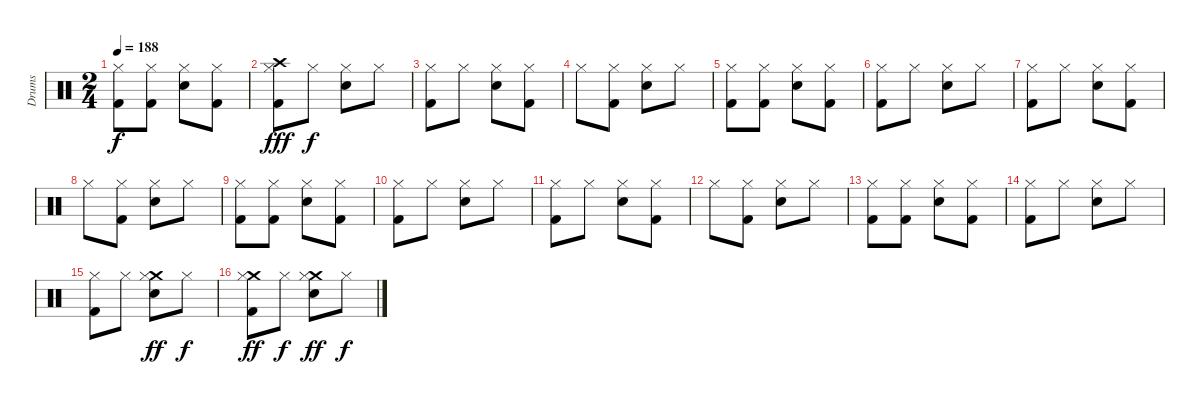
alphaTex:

\track ("Drums" "Drums") {instrument percussion}
\staff {score}
\articulation defaults
\ts (2 4)
\tempo 188
\clef neutral
\ks c
("Hi-Hat (closed)" "Kick (hit) 2").8{dy f} ("Hi-Hat (closed)" "Kick (hit) 2").8 ("Hi-Hat (closed)" "Snare (hit) 2").8 ("Hi-Hat (closed)" "Kick (hit) 2").8 |
("Crash high (hit)" "Hi-Hat (closed)" "Kick (hit) 2").8{dy fff} "Hi-Hat (closed)".8{dy f} ("Hi-Hat (closed)" "Snare (hit) 2").8 "Hi-Hat (closed)".8 |
("Hi-Hat (closed)" "Kick (hit) 2").8 "Hi-Hat (closed)".8 ("Hi-Hat (closed)" "Snare (hit) 2").8 ("Hi-Hat (closed)" "Kick (hit) 2").8 |
"Hi-Hat (closed)".8 ("Hi-Hat (closed)" "Kick (hit) 2").8 ("Hi-Hat (closed)" "Snare (hit) 2").8 "Hi-Hat (closed)".8 |
("Hi-Hat (closed)" "Kick (hit) 2").8 ("Hi-Hat (closed)" "Kick (hit) 2").8 ("Hi-Hat (closed)" "Snare (hit) 2").8 ("Hi-Hat (closed)" "Kick (hit) 2").8 |
("Hi-Hat (closed)" "Kick (hit) 2").8 "Hi-Hat (closed)".8 ("Hi-Hat (closed)" "Snare (hit) 2").8 "Hi-Hat (closed)".8 |
("Hi-Hat (closed)" "Kick (hit) 2").8 "Hi-Hat (closed)".8 ("Hi-Hat (closed)" "Snare (hit) 2").8 ("Hi-Hat (closed)" "Kick (hit) 2").8 |
"Hi-Hat (closed)".8 ("Hi-Hat (closed)" "Kick (hit) 2").8 ("Hi-Hat (closed)" "Snare (hit) 2").8 "Hi-Hat (closed)".8 |
("Hi-Hat (closed)" "Kick (hit) 2").8 ("Hi-Hat (closed)" "Kick (hit) 2").8 ("Hi-Hat (closed)" "Snare (hit) 2").8 ("Hi-Hat (closed)" "Kick (hit) 2").8 |
("Hi-Hat (closed)" "Kick (hit) 2").8 "Hi-Hat (closed)".8 ("Hi-Hat (closed)" "Snare (hit) 2").8 "Hi-Hat (closed)".8 |
("Hi-Hat (closed)" "Kick (hit) 2").8 "Hi-Hat (closed)".8 ("Hi-Hat (closed)" "Snare (hit) 2").8 ("Hi-Hat (closed)" "Kick (hit) 2").8 |
"Hi-Hat (closed)".8 ("Hi-Hat (closed)" "Kick (hit) 2").8 ("Hi-Hat (closed)" "Snare (hit) 2").8 "Hi-Hat (closed)".8 |
("Hi-Hat (closed)" "Kick (hit) 2").8 ("Hi-Hat (closed)" "Kick (hit) 2").8 ("Hi-Hat (closed)" "Snare (hit) 2").8 ("Hi-Hat (closed)" "Kick (hit) 2").8 |
("Hi-Hat (closed)" "Kick (hit) 2").8 "Hi-Hat (closed)".8 ("Hi-Hat (closed)" "Snare (hit) 2").8 "Hi-Hat (closed)".8 |
("Hi-Hat (closed)" "Kick (hit) 2").8 "Hi-Hat (closed)".8 ("Crash medium (hit)" "Hi-Hat (closed)" "Snare (hit) 2").8{dy ff} "Hi-Hat (closed)".8{dy f} |
("Crash medium (hit)" "Hi-Hat (closed)" "Kick (hit) 2").8{dy ff} "Hi-Hat (closed)".8{dy f} ("Crash medium (hit)" "Hi-Hat (closed)" "Snare (hit) 2").8{dy ff} "Hi-Hat (closed)".8{dy f}
